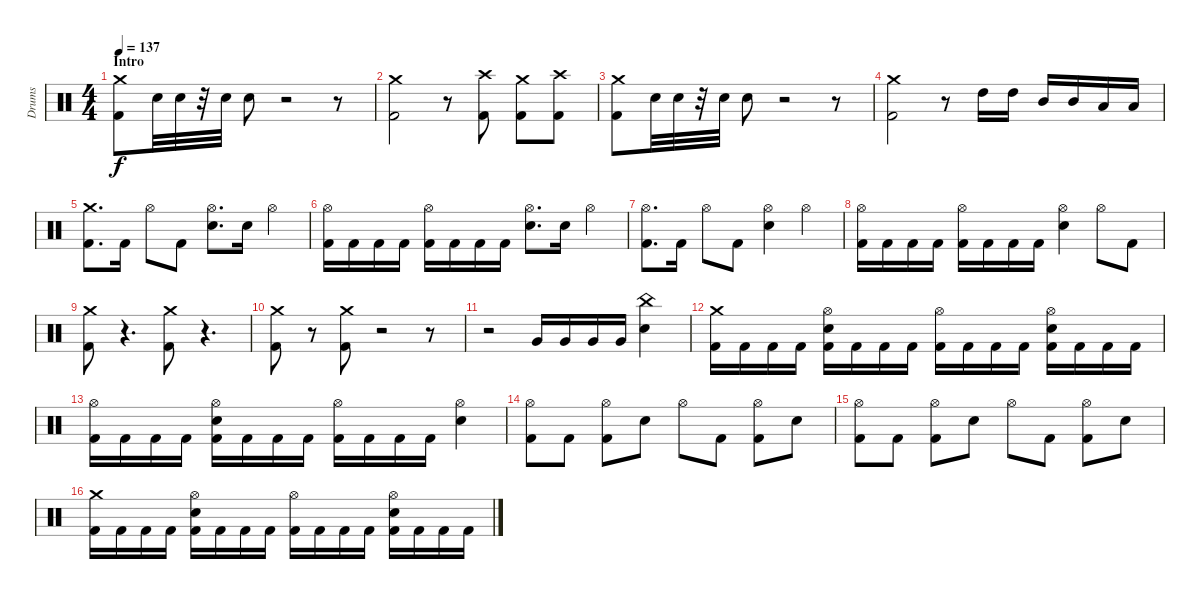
\track ("Drums" "Drums") {instrument percussion}
\staff {score}
\articulation defaults
\ts (4 4)
\section ("" "Intro")
\tempo 137
\clef neutral
\ks c
("Crash medium (hit)" "Kick (hit) 2").8{dy f} "Electric Snare (hit)".32 "Electric Snare (hit)".32 r.32 "Electric Snare (hit)".32 "Electric Snare (hit)".8 r.2 r.8 |
("Crash medium (hit)" "Kick (hit) 2").2 r.8 ("Crash high (hit)" "Kick (hit) 2").8 ("Crash medium (hit)" "Kick (hit) 2").8 ("Crash high (hit)" "Kick (hit) 2").8 |
("Crash medium (hit)" "Kick (hit) 2").8 "Electric Snare (hit)".32 "Electric Snare (hit)".32 r.32 "Electric Snare (hit)".32 "Electric Snare (hit)".8 r.2 r.8 |
("Crash medium (hit)" "Kick (hit) 2").2 r.8 "High Tom (hit)".16 "High Tom (hit)".16 "Mid Tom (hit)".16 "Mid Tom (hit)".16 "Low Tom (hit)".16 "Low Tom (hit)".16 |
("Crash medium (hit)" "Kick (hit) 2").8{d} "Kick (hit) 2".16 "Hi-Hat (open)".8 "Kick (hit) 2".8 ("Hi-Hat (open)" "Electric Snare (hit)").8{d} "Electric Snare (hit)".16 "Hi-Hat (open)".4 |
("Hi-Hat (open)" "Kick (hit) 2").16 "Kick (hit) 2".16 "Kick (hit) 2".16 "Kick (hit) 2".16 ("Hi-Hat (open)" "Kick (hit) 2").16 "Kick (hit) 2".16 "Kick (hit) 2".16 "Kick (hit) 2".16 ("Hi-Hat (open)" "Electric Snare (hit)").8{d} "Electric Snare (hit)".16 "Hi-Hat (open)".4 |
("Hi-Hat (open)" "Kick (hit) 2").8{d} "Kick (hit) 2".16 "Hi-Hat (open)".8 "Kick (hit) 2".8 ("Hi-Hat (open)" "Electric Snare (hit)").4 "Hi-Hat (open)".4 |
("Hi-Hat (open)" "Kick (hit) 2").16 "Kick (hit) 2".16 "Kick (hit) 2".16 "Kick (hit) 2".16 ("Hi-Hat (open)" "Kick (hit) 2").16 "Kick (hit) 2".16 "Kick (hit) 2".16 "Kick (hit) 2".16 ("Hi-Hat (open)" "Electric Snare (hit)").4 "Hi-Hat (open)".8 "Kick (hit) 2".8 |
("Crash medium (hit)" "Kick (hit) 2").8 r.4{d} ("Crash medium (hit)" "Kick (hit) 2").8 r.4{d} |
("Crash medium (hit)" "Kick (hit) 2").8 r.8 ("Crash medium (hit)" "Kick (hit) 2").8 r.2 r.8 |
r.2 "Very Low Tom (hit)".16 "Very Low Tom (hit)".16 "Very Low Tom (hit)".16 "Very Low Tom (hit)".16 ("China (hit)" "Electric Snare (hit)").4 |
("Crash medium (hit)" "Kick (hit) 2").16 "Kick (hit) 2".16 "Kick (hit) 2".16 "Kick (hit) 2".16 ("Electric Snare (hit)" "Hi-Hat (open)" "Kick (hit) 2").16 "Kick (hit) 2".16 "Kick (hit) 2".16 "Kick (hit) 2".16 ("Hi-Hat (open)" "Kick (hit) 2").16 "Kick (hit) 2".16 "Kick (hit) 2".16 "Kick (hit) 2".16 ("Electric Snare (hit)" "Hi-Hat (open)" "Kick (hit) 2").16 "Kick (hit) 2".16 "Kick (hit) 2".16 "Kick (hit) 2".16 |
("Hi-Hat (open)" "Kick (hit) 2").16 "Kick (hit) 2".16 "Kick (hit) 2".16 "Kick (hit) 2".16 ("Electric Snare (hit)" "Hi-Hat (open)" "Kick (hit) 2").16 "Kick (hit) 2".16 "Kick (hit) 2".16 "Kick (hit) 2".16 ("Hi-Hat (open)" "Kick (hit) 2").16 "Kick (hit) 2".16 "Kick (hit) 2".16 "Kick (hit) 2".16 ("Electric Snare (hit)" "Hi-Hat (open)").4 |
("Kick (hit) 2" "Hi-Hat (open)").8 "Kick (hit) 2".8 ("Kick (hit) 2" "Hi-Hat (open)").8 "Electric Snare (hit)".8 "Hi-Hat (open)".8 "Kick (hit) 2".8 ("Kick (hit) 2" "Hi-Hat (open)").8 "Electric Snare (hit)".8 |
("Kick (hit) 2" "Hi-Hat (open)").8 "Kick (hit) 2".8 ("Kick (hit) 2" "Hi-Hat (open)").8 "Electric Snare (hit)".8 "Hi-Hat (open)".8 "Kick (hit) 2".8 ("Kick (hit) 2" "Hi-Hat (open)").8 "Electric Snare (hit)".8 |
("Crash medium (hit)" "Kick (hit) 2").16 "Kick (hit) 2".16 "Kick (hit) 2".16 "Kick (hit) 2".16 ("Electric Snare (hit)" "Hi-Hat (open)" "Kick (hit) 2").16 "Kick (hit) 2".16 "Kick (hit) 2".16 "Kick (hit) 2".16 ("Hi-Hat (open)" "Kick (hit) 2").16 "Kick (hit) 2".16 "Kick (hit) 2".16 "Kick (hit) 2".16 ("Electric Snare (hit)" "Hi-Hat (open)" "Kick (hit) 2").16 "Kick (hit) 2".16 "Kick (hit) 2".16 "Kick (hit) 2".16
